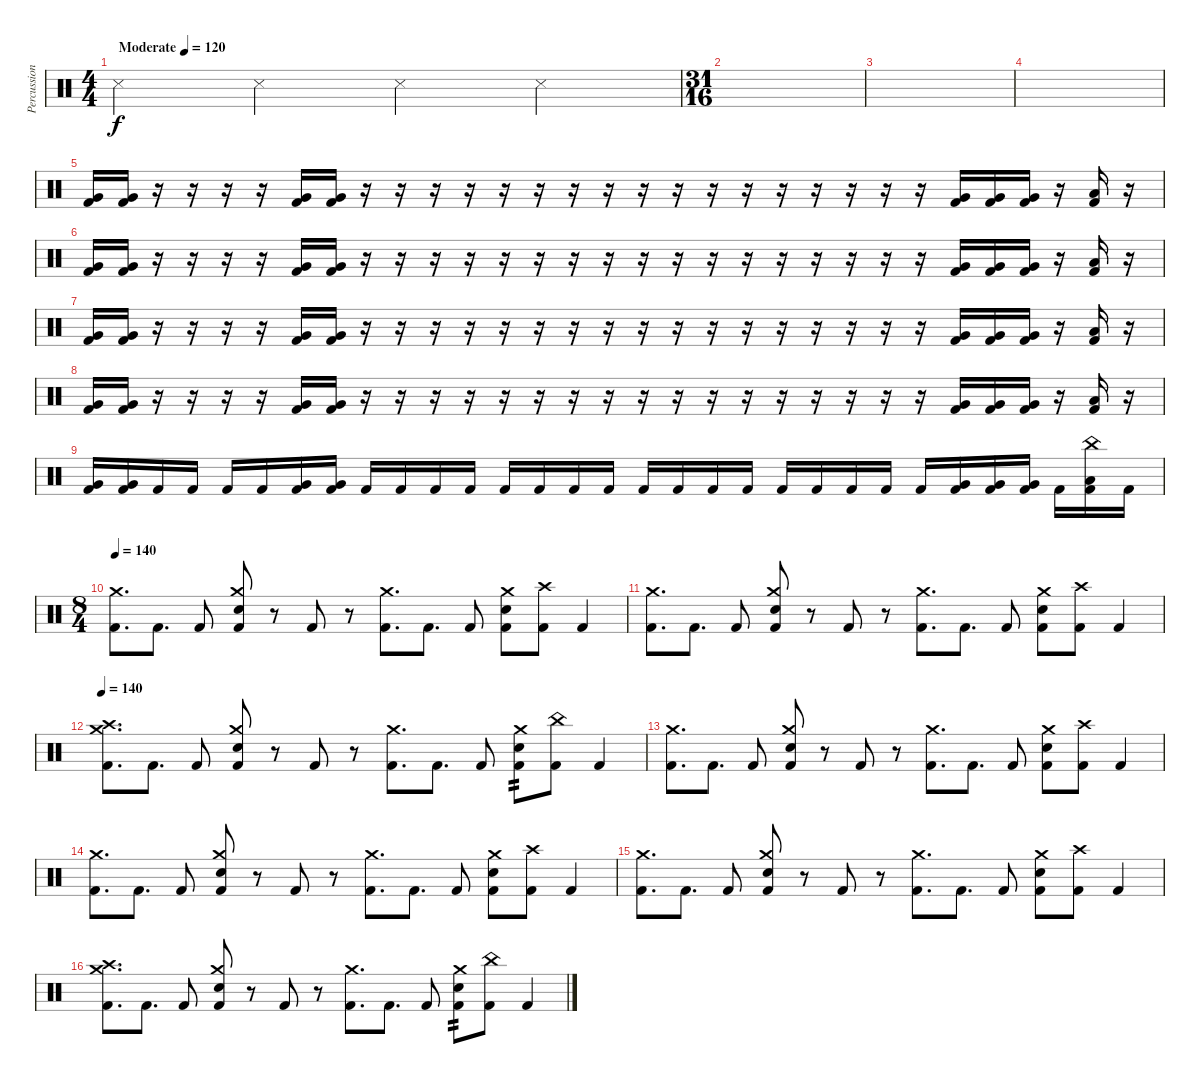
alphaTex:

\track ("Percussion" "Percussion") {solo instrument percussion}
\staff {score}
\articulation defaults
\ts (4 4)
\tempo (120 "Moderate")
\clef neutral
\ks c "Snare (side stick) 3".4{dy f} "Snare (side stick) 3".4 "Snare (side stick) 3".4 "Snare (side stick) 3".4
|
\ts (31 16)
|
|
|
("Very Low Tom (hit)" "Kick (hit) 2").16 ("Very Low Tom (hit)" "Kick (hit) 2").16 r.16 r.16 r.16 r.16 ("Very Low Tom (hit)" "Kick (hit) 2").16 ("Very Low Tom (hit)" "Kick (hit) 2").16 r.16 r.16 r.16 r.16 r.16 r.16 r.16 r.16 r.16 r.16 r.16 r.16 r.16 r.16 r.16 r.16 r.16 ("Very Low Tom (hit)" "Kick (hit) 2").16 ("Very Low Tom (hit)" "Kick (hit) 2").16 ("Very Low Tom (hit)" "Kick (hit) 2").16 r.16 ("Low Floor Tom (hit)" "Kick (hit) 2").16 r.16 |
("Very Low Tom (hit)" "Kick (hit) 2").16 ("Very Low Tom (hit)" "Kick (hit) 2").16 r.16 r.16 r.16 r.16 ("Very Low Tom (hit)" "Kick (hit) 2").16 ("Very Low Tom (hit)" "Kick (hit) 2").16 r.16 r.16 r.16 r.16 r.16 r.16 r.16 r.16 r.16 r.16 r.16 r.16 r.16 r.16 r.16 r.16 r.16 ("Very Low Tom (hit)" "Kick (hit) 2").16 ("Very Low Tom (hit)" "Kick (hit) 2").16 ("Very Low Tom (hit)" "Kick (hit) 2").16 r.16 ("Low Floor Tom (hit)" "Kick (hit) 2").16 r.16 |
("Very Low Tom (hit)" "Kick (hit) 2").16 ("Very Low Tom (hit)" "Kick (hit) 2").16 r.16 r.16 r.16 r.16 ("Very Low Tom (hit)" "Kick (hit) 2").16 ("Very Low Tom (hit)" "Kick (hit) 2").16 r.16 r.16 r.16 r.16 r.16 r.16 r.16 r.16 r.16 r.16 r.16 r.16 r.16 r.16 r.16 r.16 r.16 ("Very Low Tom (hit)" "Kick (hit) 2").16 ("Very Low Tom (hit)" "Kick (hit) 2").16 ("Very Low Tom (hit)" "Kick (hit) 2").16 r.16 ("Low Floor Tom (hit)" "Kick (hit) 2").16 r.16 |
("Very Low Tom (hit)" "Kick (hit) 2").16 ("Very Low Tom (hit)" "Kick (hit) 2").16 r.16 r.16 r.16 r.16 ("Very Low Tom (hit)" "Kick (hit) 2").16 ("Very Low Tom (hit)" "Kick (hit) 2").16 r.16 r.16 r.16 r.16 r.16 r.16 r.16 r.16 r.16 r.16 r.16 r.16 r.16 r.16 r.16 r.16 r.16 ("Very Low Tom (hit)" "Kick (hit) 2").16 ("Very Low Tom (hit)" "Kick (hit) 2").16 ("Very Low Tom (hit)" "Kick (hit) 2").16 r.16 ("Low Floor Tom (hit)" "Kick (hit) 2").16 r.16 |
("Very Low Tom (hit)" "Kick (hit) 2").16 ("Very Low Tom (hit)" "Kick (hit) 2").16 "Kick (hit) 2".16 "Kick (hit) 2".16 "Kick (hit) 2".16 "Kick (hit) 2".16 ("Very Low Tom (hit)" "Kick (hit) 2").16 ("Very Low Tom (hit)" "Kick (hit) 2").16 "Kick (hit) 2".16 "Kick (hit) 2".16 "Kick (hit) 2".16 "Kick (hit) 2".16 "Kick (hit) 2".16 "Kick (hit) 2".16 "Kick (hit) 2".16 "Kick (hit) 2".16 "Kick (hit) 2".16 "Kick (hit) 2".16 "Kick (hit) 2".16 "Kick (hit) 2".16 "Kick (hit) 2".16 "Kick (hit) 2".16 "Kick (hit) 2".16 "Kick (hit) 2".16 "Kick (hit) 2".16 ("Very Low Tom (hit)" "Kick (hit) 2").16 ("Very Low Tom (hit)" "Kick (hit) 2").16 ("Very Low Tom (hit)" "Kick (hit) 2").16 "Kick (hit) 2".16 ("China (hit)" "Low Floor Tom (hit)" "Kick (hit) 2").16 "Kick (hit) 2".16 |
\ts (8 4)
\tempo 140
("Crash medium (hit)" "Kick (hit) 2").8{d} "Kick (hit) 2".8{d} "Kick (hit) 2".8 ("Crash medium (hit)" "Electric Snare (hit)" "Kick (hit) 2").8 r.8 "Kick (hit) 2".8 r.8 ("Crash medium (hit)" "Kick (hit) 2").8{d} "Kick (hit) 2".8{d} "Kick (hit) 2".8 ("Crash medium (hit)" "Electric Snare (hit)" "Kick (hit) 2").8 ("Crash high (hit)" "Kick (hit) 2").8 "Kick (hit) 2".4 |
("Crash medium (hit)" "Kick (hit) 2").8{d} "Kick (hit) 2".8{d} "Kick (hit) 2".8 ("Crash medium (hit)" "Electric Snare (hit)" "Kick (hit) 2").8 r.8 "Kick (hit) 2".8 r.8 ("Crash medium (hit)" "Kick (hit) 2").8{d} "Kick (hit) 2".8{d} "Kick (hit) 2".8 ("Crash medium (hit)" "Electric Snare (hit)" "Kick (hit) 2").8 ("Crash high (hit)" "Kick (hit) 2").8 "Kick (hit) 2".4 |
\tempo 140
("Crash medium (hit)" "Crash high (hit)" "Kick (hit) 2").8{d} "Kick (hit) 2".8{d} "Kick (hit) 2".8 ("Crash medium (hit)" "Electric Snare (hit)" "Kick (hit) 2").8 r.8 "Kick (hit) 2".8 r.8 ("Crash medium (hit)" "Kick (hit) 2").8{d} "Kick (hit) 2".8{d} "Kick (hit) 2".8 ("Crash medium (hit)" "Electric Snare (hit)" "Kick (hit) 2").8{tp 2} ("China (hit)" "Kick (hit) 2").8 "Kick (hit) 2".4 |
("Crash medium (hit)" "Kick (hit) 2").8{d} "Kick (hit) 2".8{d} "Kick (hit) 2".8 ("Crash medium (hit)" "Electric Snare (hit)" "Kick (hit) 2").8 r.8 "Kick (hit) 2".8 r.8 ("Crash medium (hit)" "Kick (hit) 2").8{d} "Kick (hit) 2".8{d} "Kick (hit) 2".8 ("Crash medium (hit)" "Electric Snare (hit)" "Kick (hit) 2").8 ("Crash high (hit)" "Kick (hit) 2").8 "Kick (hit) 2".4 |
("Crash medium (hit)" "Kick (hit) 2").8{d} "Kick (hit) 2".8{d} "Kick (hit) 2".8 ("Crash medium (hit)" "Electric Snare (hit)" "Kick (hit) 2").8 r.8 "Kick (hit) 2".8 r.8 ("Crash medium (hit)" "Kick (hit) 2").8{d} "Kick (hit) 2".8{d} "Kick (hit) 2".8 ("Crash medium (hit)" "Electric Snare (hit)" "Kick (hit) 2").8 ("Crash high (hit)" "Kick (hit) 2").8 "Kick (hit) 2".4 |
("Crash medium (hit)" "Kick (hit) 2").8{d} "Kick (hit) 2".8{d} "Kick (hit) 2".8 ("Crash medium (hit)" "Electric Snare (hit)" "Kick (hit) 2").8 r.8 "Kick (hit) 2".8 r.8 ("Crash medium (hit)" "Kick (hit) 2").8{d} "Kick (hit) 2".8{d} "Kick (hit) 2".8 ("Crash medium (hit)" "Electric Snare (hit)" "Kick (hit) 2").8 ("Crash high (hit)" "Kick (hit) 2").8 "Kick (hit) 2".4 |
("Crash medium (hit)" "Crash high (hit)" "Kick (hit) 2").8{d} "Kick (hit) 2".8{d} "Kick (hit) 2".8 ("Crash medium (hit)" "Electric Snare (hit)" "Kick (hit) 2").8 r.8 "Kick (hit) 2".8 r.8 ("Crash medium (hit)" "Kick (hit) 2").8{d} "Kick (hit) 2".8{d} "Kick (hit) 2".8 ("Crash medium (hit)" "Electric Snare (hit)" "Kick (hit) 2").8{tp 2} ("China (hit)" "Kick (hit) 2").8 "Kick (hit) 2".4
